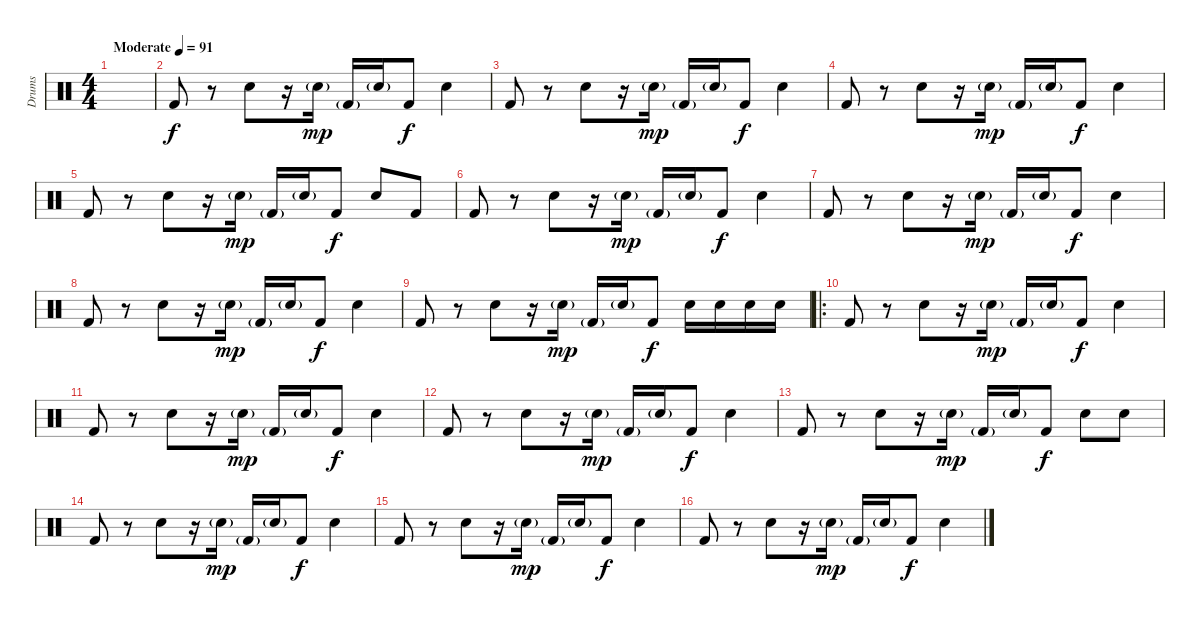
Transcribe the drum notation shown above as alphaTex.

\track ("Drums" "Drums") {instrument percussion}
\staff {score}
\articulation defaults
\ts (4 4)
\tempo (91 "Moderate")
\clef neutral
\ks c
|
"Kick (hit) 2".8 r.8 "Snare (hit) 2".8 r.16 "Snare (hit) 2"{g}.16{dy mp} "Kick (hit) 2"{g}.16 "Snare (hit) 2"{g}.16 "Kick (hit) 2".8{dy f} "Snare (hit) 2".4 |
"Kick (hit) 2".8 r.8 "Snare (hit) 2".8 r.16 "Snare (hit) 2"{g}.16{dy mp} "Kick (hit) 2"{g}.16 "Snare (hit) 2"{g}.16 "Kick (hit) 2".8{dy f} "Snare (hit) 2".4 |
"Kick (hit) 2".8 r.8 "Snare (hit) 2".8 r.16 "Snare (hit) 2"{g}.16{dy mp} "Kick (hit) 2"{g}.16 "Snare (hit) 2"{g}.16 "Kick (hit) 2".8{dy f} "Snare (hit) 2".4 |
"Kick (hit) 2".8 r.8 "Snare (hit) 2".8 r.16 "Snare (hit) 2"{g}.16{dy mp} "Kick (hit) 2"{g}.16 "Snare (hit) 2"{g}.16 "Kick (hit) 2".8{dy f} "Snare (hit) 2".8 "Kick (hit) 2".8 |
"Kick (hit) 2".8 r.8 "Snare (hit) 2".8 r.16 "Snare (hit) 2"{g}.16{dy mp} "Kick (hit) 2"{g}.16 "Snare (hit) 2"{g}.16 "Kick (hit) 2".8{dy f} "Snare (hit) 2".4 |
"Kick (hit) 2".8 r.8 "Snare (hit) 2".8 r.16 "Snare (hit) 2"{g}.16{dy mp} "Kick (hit) 2"{g}.16 "Snare (hit) 2"{g}.16 "Kick (hit) 2".8{dy f} "Snare (hit) 2".4 |
"Kick (hit) 2".8 r.8 "Snare (hit) 2".8 r.16 "Snare (hit) 2"{g}.16{dy mp} "Kick (hit) 2"{g}.16 "Snare (hit) 2"{g}.16 "Kick (hit) 2".8{dy f} "Snare (hit) 2".4 |
"Kick (hit) 2".8 r.8 "Snare (hit) 2".8 r.16 "Snare (hit) 2"{g}.16{dy mp} "Kick (hit) 2"{g}.16 "Snare (hit) 2"{g}.16 "Kick (hit) 2".8{dy f} "Snare (hit) 2".16 "Snare (hit) 2".16 "Snare (hit) 2".16 "Snare (hit) 2".16 |
\ro "Kick (hit) 2".8
r.8 "Snare (hit) 2".8 r.16 "Snare (hit) 2"{g}.16{dy mp} "Kick (hit) 2"{g}.16 "Snare (hit) 2"{g}.16 "Kick (hit) 2".8{dy f} "Snare (hit) 2".4 |
"Kick (hit) 2".8 r.8 "Snare (hit) 2".8 r.16 "Snare (hit) 2"{g}.16{dy mp} "Kick (hit) 2"{g}.16 "Snare (hit) 2"{g}.16 "Kick (hit) 2".8{dy f} "Snare (hit) 2".4 |
"Kick (hit) 2".8 r.8 "Snare (hit) 2".8 r.16 "Snare (hit) 2"{g}.16{dy mp} "Kick (hit) 2"{g}.16 "Snare (hit) 2"{g}.16 "Kick (hit) 2".8{dy f} "Snare (hit) 2".4 |
"Kick (hit) 2".8 r.8 "Snare (hit) 2".8 r.16 "Snare (hit) 2"{g}.16{dy mp} "Kick (hit) 2"{g}.16 "Snare (hit) 2"{g}.16 "Kick (hit) 2".8{dy f} "Snare (hit) 2".8 "Snare (hit) 2".8 |
"Kick (hit) 2".8 r.8 "Snare (hit) 2".8 r.16 "Snare (hit) 2"{g}.16{dy mp} "Kick (hit) 2"{g}.16 "Snare (hit) 2"{g}.16 "Kick (hit) 2".8{dy f} "Snare (hit) 2".4 |
"Kick (hit) 2".8 r.8 "Snare (hit) 2".8 r.16 "Snare (hit) 2"{g}.16{dy mp} "Kick (hit) 2"{g}.16 "Snare (hit) 2"{g}.16 "Kick (hit) 2".8{dy f} "Snare (hit) 2".4 |
"Kick (hit) 2".8 r.8 "Snare (hit) 2".8 r.16 "Snare (hit) 2"{g}.16{dy mp} "Kick (hit) 2"{g}.16 "Snare (hit) 2"{g}.16 "Kick (hit) 2".8{dy f} "Snare (hit) 2".4
